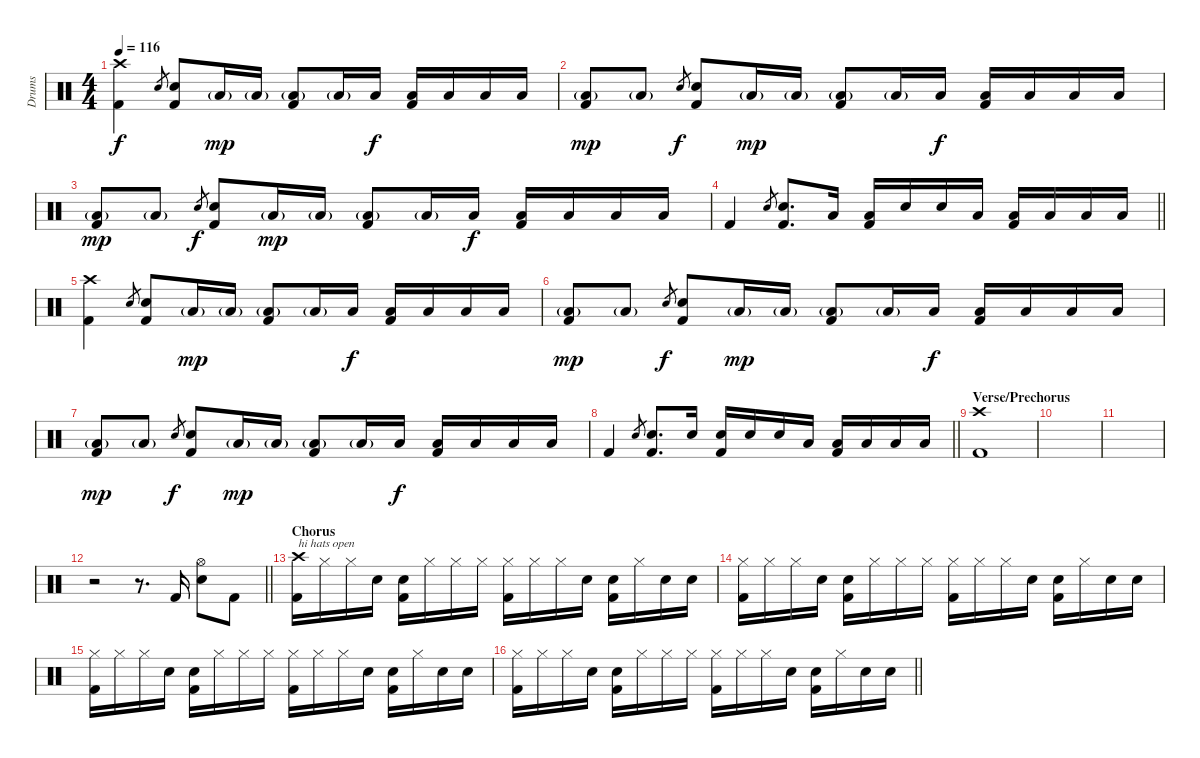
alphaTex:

\track ("Drums" "Drums") {instrument percussion}
\staff {score}
\articulation defaults
\ts (4 4)
\tempo 116
\clef neutral
\ks c
("Crash high (hit)" "Kick (hit) 2").4{dy f} "Electric Snare (hit)".8{gr} ("Electric Snare (hit)" "Kick (hit) 2").8 "Low Floor Tom (hit)"{g}.16{dy mp} "Low Floor Tom (hit)"{g}.16 ("Low Floor Tom (hit)"{g} "Kick (hit) 2").8 "Low Floor Tom (hit)"{g}.16 "Low Floor Tom (hit)".16{dy f} ("Low Floor Tom (hit)" "Kick (hit) 2").16 "Low Floor Tom (hit)".16 "Low Floor Tom (hit)".16 "Low Floor Tom (hit)".16 |
("Low Floor Tom (hit)"{g} "Kick (hit) 2").8{dy mp} "Low Floor Tom (hit)"{g}.8 "Electric Snare (hit)".8{gr dy f} ("Electric Snare (hit)" "Kick (hit) 2").8 "Low Floor Tom (hit)"{g}.16{dy mp} "Low Floor Tom (hit)"{g}.16 ("Low Floor Tom (hit)"{g} "Kick (hit) 2").8 "Low Floor Tom (hit)"{g}.16 "Low Floor Tom (hit)".16{dy f} ("Low Floor Tom (hit)" "Kick (hit) 2").16 "Low Floor Tom (hit)".16 "Low Floor Tom (hit)".16 "Low Floor Tom (hit)".16 |
("Low Floor Tom (hit)"{g} "Kick (hit) 2").8{dy mp} "Low Floor Tom (hit)"{g}.8 "Electric Snare (hit)".8{gr dy f} ("Electric Snare (hit)" "Kick (hit) 2").8 "Low Floor Tom (hit)"{g}.16{dy mp} "Low Floor Tom (hit)"{g}.16 ("Low Floor Tom (hit)"{g} "Kick (hit) 2").8 "Low Floor Tom (hit)"{g}.16 "Low Floor Tom (hit)".16{dy f} ("Low Floor Tom (hit)" "Kick (hit) 2").16 "Low Floor Tom (hit)".16 "Low Floor Tom (hit)".16 "Low Floor Tom (hit)".16 |
\barLineRight lightlight "Kick (hit) 2".4 "Electric Snare (hit)".8{gr}
("Electric Snare (hit)" "Kick (hit) 2").8{d} "Low Floor Tom (hit)".16 ("Low Floor Tom (hit)" "Kick (hit) 2").16 "Electric Snare (hit)".16 "Electric Snare (hit)".16 "Low Tom (hit)".16 ("Low Tom (hit)" "Kick (hit) 2").16 "Low Tom (hit)".16 "Low Tom (hit)".16 "Low Tom (hit)".16 |
("Crash high (hit)" "Kick (hit) 2").4 "Electric Snare (hit)".8{gr} ("Electric Snare (hit)" "Kick (hit) 2").8 "Low Floor Tom (hit)"{g}.16{dy mp} "Low Floor Tom (hit)"{g}.16 ("Low Floor Tom (hit)"{g} "Kick (hit) 2").8 "Low Floor Tom (hit)"{g}.16 "Low Floor Tom (hit)".16{dy f} ("Low Floor Tom (hit)" "Kick (hit) 2").16 "Low Floor Tom (hit)".16 "Low Floor Tom (hit)".16 "Low Floor Tom (hit)".16 |
("Low Floor Tom (hit)"{g} "Kick (hit) 2").8{dy mp} "Low Floor Tom (hit)"{g}.8 "Electric Snare (hit)".8{gr dy f} ("Electric Snare (hit)" "Kick (hit) 2").8 "Low Floor Tom (hit)"{g}.16{dy mp} "Low Floor Tom (hit)"{g}.16 ("Low Floor Tom (hit)"{g} "Kick (hit) 2").8 "Low Floor Tom (hit)"{g}.16 "Low Floor Tom (hit)".16{dy f} ("Low Floor Tom (hit)" "Kick (hit) 2").16 "Low Floor Tom (hit)".16 "Low Floor Tom (hit)".16 "Low Floor Tom (hit)".16 |
("Low Floor Tom (hit)"{g} "Kick (hit) 2").8{dy mp} "Low Floor Tom (hit)"{g}.8 "Electric Snare (hit)".8{gr dy f} ("Electric Snare (hit)" "Kick (hit) 2").8 "Low Floor Tom (hit)"{g}.16{dy mp} "Low Floor Tom (hit)"{g}.16 ("Low Floor Tom (hit)"{g} "Kick (hit) 2").8 "Low Floor Tom (hit)"{g}.16 "Low Floor Tom (hit)".16{dy f} ("Low Floor Tom (hit)" "Kick (hit) 2").16 "Low Floor Tom (hit)".16 "Low Floor Tom (hit)".16 "Low Floor Tom (hit)".16 |
\barLineRight lightlight "Kick (hit) 2".4 "Electric Snare (hit)".8{gr}
("Electric Snare (hit)" "Kick (hit) 2").8{d} "Electric Snare (hit)".16 ("Electric Snare (hit)" "Kick (hit) 2").16 "Electric Snare (hit)".16 "Electric Snare (hit)".16 "Low Tom (hit)".16 ("Low Tom (hit)" "Kick (hit) 2").16 "Low Tom (hit)".16 "Low Tom (hit)".16 "Low Tom (hit)".16 |
\section ("" "Verse/Prechorus")
("Crash high (hit)" "Kick (hit) 2").1 |
|
|
\barLineRight lightlight
r.2 r.8{d} "Kick (hit) 2".16 ("Hi-Hat (open)" "Electric Snare (hit)").8 "Kick (hit) 2".8 |
\section ("" "Chorus")
("Crash high (hit)" "Kick (hit) 2").16{txt "hi hats open"} "Hi-Hat (closed)".16 "Hi-Hat (closed)".16 "Electric Snare (hit)".16 ("Electric Snare (hit)" "Kick (hit) 2").16 "Hi-Hat (closed)".16 "Hi-Hat (closed)".16 "Hi-Hat (closed)".16 ("Hi-Hat (closed)" "Kick (hit) 2").16 "Hi-Hat (closed)".16 "Hi-Hat (closed)".16 "Electric Snare (hit)".16 ("Electric Snare (hit)" "Kick (hit) 2").16 "Hi-Hat (closed)".16 "Electric Snare (hit)".16 "Electric Snare (hit)".16 |
("Hi-Hat (closed)" "Kick (hit) 2").16 "Hi-Hat (closed)".16 "Hi-Hat (closed)".16 "Electric Snare (hit)".16 ("Electric Snare (hit)" "Kick (hit) 2").16 "Hi-Hat (closed)".16 "Hi-Hat (closed)".16 "Hi-Hat (closed)".16 ("Hi-Hat (closed)" "Kick (hit) 2").16 "Hi-Hat (closed)".16 "Hi-Hat (closed)".16 "Electric Snare (hit)".16 ("Electric Snare (hit)" "Kick (hit) 2").16 "Hi-Hat (closed)".16 "Electric Snare (hit)".16 "Electric Snare (hit)".16 |
("Hi-Hat (closed)" "Kick (hit) 2").16 "Hi-Hat (closed)".16 "Hi-Hat (closed)".16 "Electric Snare (hit)".16 ("Electric Snare (hit)" "Kick (hit) 2").16 "Hi-Hat (closed)".16 "Hi-Hat (closed)".16 "Hi-Hat (closed)".16 ("Hi-Hat (closed)" "Kick (hit) 2").16 "Hi-Hat (closed)".16 "Hi-Hat (closed)".16 "Electric Snare (hit)".16 ("Electric Snare (hit)" "Kick (hit) 2").16 "Hi-Hat (closed)".16 "Electric Snare (hit)".16 "Electric Snare (hit)".16 |
\barLineRight lightlight
("Hi-Hat (closed)" "Kick (hit) 2").16 "Hi-Hat (closed)".16 "Hi-Hat (closed)".16 "Electric Snare (hit)".16 ("Electric Snare (hit)" "Kick (hit) 2").16 "Hi-Hat (closed)".16 "Hi-Hat (closed)".16 "Hi-Hat (closed)".16 ("Hi-Hat (closed)" "Kick (hit) 2").16 "Hi-Hat (closed)".16 "Hi-Hat (closed)".16 "Electric Snare (hit)".16 ("Electric Snare (hit)" "Kick (hit) 2").16 "Hi-Hat (closed)".16 "Electric Snare (hit)".16 "Electric Snare (hit)".16
